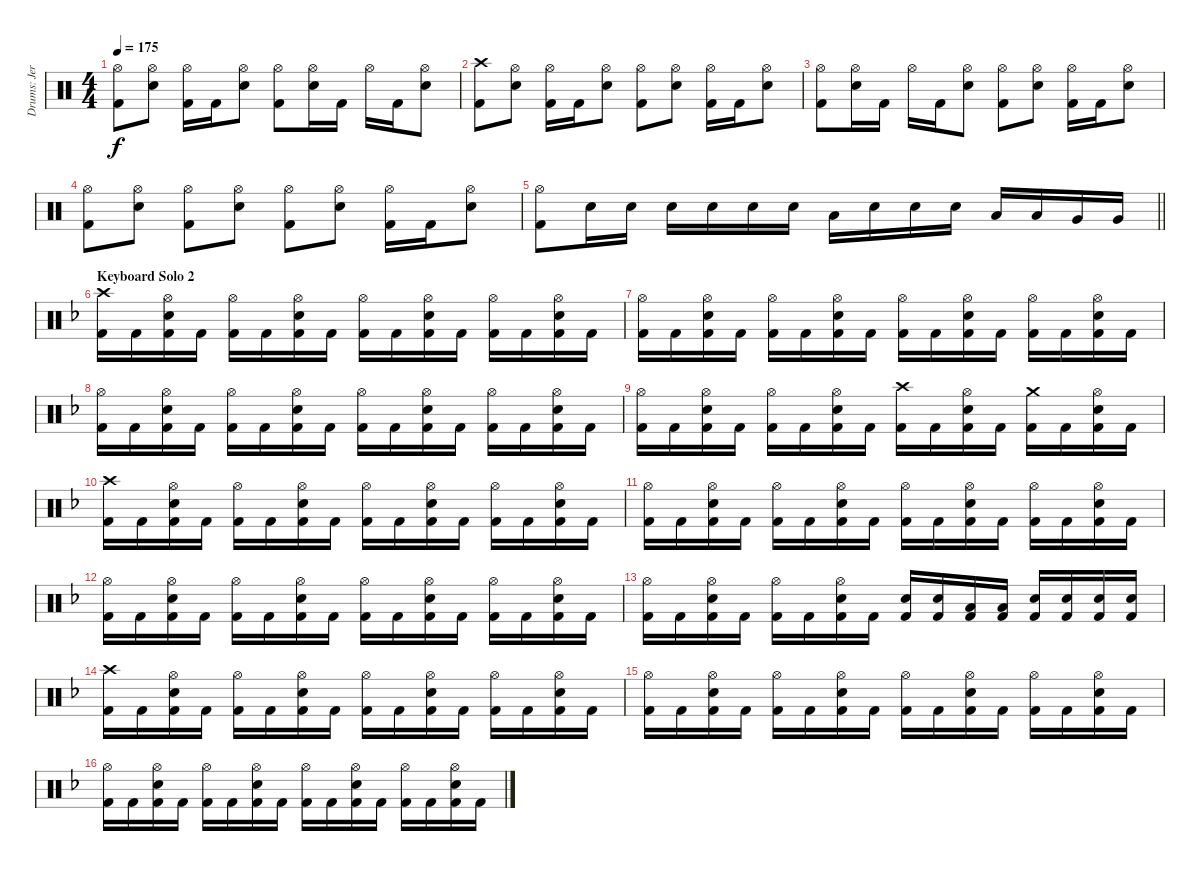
\track ("Drums: Jere Luokkamäki" "Drums: Jer") {instrument percussion}
\staff {score}
\articulation defaults
\ts (4 4)
\tempo 175
\clef neutral
\ks aminor
("Hi-Hat (open)" "Kick (hit) 2").8{dy f} ("Hi-Hat (open)" "Electric Snare (hit)").8 ("Hi-Hat (open)" "Kick (hit) 2").16 "Kick (hit) 2".16 ("Hi-Hat (open)" "Electric Snare (hit)").8 ("Hi-Hat (open)" "Kick (hit) 2").8 ("Hi-Hat (open)" "Electric Snare (hit)").16 "Kick (hit) 2".16 "Hi-Hat (open)".16 "Kick (hit) 2".16 ("Hi-Hat (open)" "Electric Snare (hit)").8 |
("Crash high (hit)" "Kick (hit) 2").8 ("Hi-Hat (open)" "Electric Snare (hit)").8 ("Hi-Hat (open)" "Kick (hit) 2").16 "Kick (hit) 2".16 ("Hi-Hat (open)" "Electric Snare (hit)").8 ("Hi-Hat (open)" "Kick (hit) 2").8 ("Hi-Hat (open)" "Electric Snare (hit)").8 ("Hi-Hat (open)" "Kick (hit) 2").16 "Kick (hit) 2".16 ("Hi-Hat (open)" "Electric Snare (hit)").8 |
("Hi-Hat (open)" "Kick (hit) 2").8 ("Hi-Hat (open)" "Electric Snare (hit)").16 "Kick (hit) 2".16 "Hi-Hat (open)".16 "Kick (hit) 2".16 ("Hi-Hat (open)" "Electric Snare (hit)").8 ("Hi-Hat (open)" "Kick (hit) 2").8 ("Hi-Hat (open)" "Electric Snare (hit)").8 ("Hi-Hat (open)" "Kick (hit) 2").16 "Kick (hit) 2".16 ("Hi-Hat (open)" "Electric Snare (hit)").8 |
("Hi-Hat (open)" "Kick (hit) 2").8 ("Hi-Hat (open)" "Electric Snare (hit)").8 ("Hi-Hat (open)" "Kick (hit) 2").8 ("Hi-Hat (open)" "Electric Snare (hit)").8 ("Hi-Hat (open)" "Kick (hit) 2").8 ("Hi-Hat (open)" "Electric Snare (hit)").8 ("Hi-Hat (open)" "Kick (hit) 2").16 "Kick (hit) 2".16 ("Hi-Hat (open)" "Electric Snare (hit)").8 |
\barLineRight lightlight
("Hi-Hat (open)" "Kick (hit) 2").8 "Electric Snare (hit)".16 "Electric Snare (hit)".16 "Electric Snare (hit)".16 "Electric Snare (hit)".16 "Electric Snare (hit)".16 "Electric Snare (hit)".16 "Low Tom (hit)".16 "Electric Snare (hit)".16 "Electric Snare (hit)".16 "Electric Snare (hit)".16 "Low Tom (hit)".16 "Low Tom (hit)".16 "Very Low Tom (hit)".16 "Very Low Tom (hit)".16 |
\section ("" "Keyboard Solo 2")
\ks dminor
("Crash high (hit)" "Kick (hit) 2").16 "Kick (hit) 2".16 ("Hi-Hat (open)" "Electric Snare (hit)" "Kick (hit) 2").16 "Kick (hit) 2".16 ("Hi-Hat (open)" "Kick (hit) 2").16 "Kick (hit) 2".16 ("Hi-Hat (open)" "Electric Snare (hit)" "Kick (hit) 2").16 "Kick (hit) 2".16 ("Hi-Hat (open)" "Kick (hit) 2").16 "Kick (hit) 2".16 ("Hi-Hat (open)" "Electric Snare (hit)" "Kick (hit) 2").16 "Kick (hit) 2".16 ("Hi-Hat (open)" "Kick (hit) 2").16 "Kick (hit) 2".16 ("Hi-Hat (open)" "Electric Snare (hit)" "Kick (hit) 2").16 "Kick (hit) 2".16 |
("Hi-Hat (open)" "Kick (hit) 2").16 "Kick (hit) 2".16 ("Hi-Hat (open)" "Electric Snare (hit)" "Kick (hit) 2").16 "Kick (hit) 2".16 ("Hi-Hat (open)" "Kick (hit) 2").16 "Kick (hit) 2".16 ("Hi-Hat (open)" "Electric Snare (hit)" "Kick (hit) 2").16 "Kick (hit) 2".16 ("Hi-Hat (open)" "Kick (hit) 2").16 "Kick (hit) 2".16 ("Hi-Hat (open)" "Electric Snare (hit)" "Kick (hit) 2").16 "Kick (hit) 2".16 ("Hi-Hat (open)" "Kick (hit) 2").16 "Kick (hit) 2".16 ("Hi-Hat (open)" "Electric Snare (hit)" "Kick (hit) 2").16 "Kick (hit) 2".16 |
("Hi-Hat (open)" "Kick (hit) 2").16 "Kick (hit) 2".16 ("Hi-Hat (open)" "Electric Snare (hit)" "Kick (hit) 2").16 "Kick (hit) 2".16 ("Hi-Hat (open)" "Kick (hit) 2").16 "Kick (hit) 2".16 ("Hi-Hat (open)" "Electric Snare (hit)" "Kick (hit) 2").16 "Kick (hit) 2".16 ("Hi-Hat (open)" "Kick (hit) 2").16 "Kick (hit) 2".16 ("Hi-Hat (open)" "Electric Snare (hit)" "Kick (hit) 2").16 "Kick (hit) 2".16 ("Hi-Hat (open)" "Kick (hit) 2").16 "Kick (hit) 2".16 ("Hi-Hat (open)" "Electric Snare (hit)" "Kick (hit) 2").16 "Kick (hit) 2".16 |
("Hi-Hat (open)" "Kick (hit) 2").16 "Kick (hit) 2".16 ("Hi-Hat (open)" "Electric Snare (hit)" "Kick (hit) 2").16 "Kick (hit) 2".16 ("Hi-Hat (open)" "Kick (hit) 2").16 "Kick (hit) 2".16 ("Hi-Hat (open)" "Electric Snare (hit)" "Kick (hit) 2").16 "Kick (hit) 2".16 ("Crash high (hit)" "Kick (hit) 2").16 "Kick (hit) 2".16 ("Hi-Hat (open)" "Electric Snare (hit)" "Kick (hit) 2").16 "Kick (hit) 2".16 ("Crash medium (hit)" "Kick (hit) 2").16 "Kick (hit) 2".16 ("Hi-Hat (open)" "Electric Snare (hit)" "Kick (hit) 2").16 "Kick (hit) 2".16 |
("Crash high (hit)" "Kick (hit) 2").16 "Kick (hit) 2".16 ("Hi-Hat (open)" "Electric Snare (hit)" "Kick (hit) 2").16 "Kick (hit) 2".16 ("Hi-Hat (open)" "Kick (hit) 2").16 "Kick (hit) 2".16 ("Hi-Hat (open)" "Electric Snare (hit)" "Kick (hit) 2").16 "Kick (hit) 2".16 ("Hi-Hat (open)" "Kick (hit) 2").16 "Kick (hit) 2".16 ("Hi-Hat (open)" "Electric Snare (hit)" "Kick (hit) 2").16 "Kick (hit) 2".16 ("Hi-Hat (open)" "Kick (hit) 2").16 "Kick (hit) 2".16 ("Hi-Hat (open)" "Electric Snare (hit)" "Kick (hit) 2").16 "Kick (hit) 2".16 |
("Hi-Hat (open)" "Kick (hit) 2").16 "Kick (hit) 2".16 ("Hi-Hat (open)" "Electric Snare (hit)" "Kick (hit) 2").16 "Kick (hit) 2".16 ("Hi-Hat (open)" "Kick (hit) 2").16 "Kick (hit) 2".16 ("Hi-Hat (open)" "Electric Snare (hit)" "Kick (hit) 2").16 "Kick (hit) 2".16 ("Hi-Hat (open)" "Kick (hit) 2").16 "Kick (hit) 2".16 ("Hi-Hat (open)" "Electric Snare (hit)" "Kick (hit) 2").16 "Kick (hit) 2".16 ("Hi-Hat (open)" "Kick (hit) 2").16 "Kick (hit) 2".16 ("Hi-Hat (open)" "Electric Snare (hit)" "Kick (hit) 2").16 "Kick (hit) 2".16 |
("Hi-Hat (open)" "Kick (hit) 2").16 "Kick (hit) 2".16 ("Hi-Hat (open)" "Electric Snare (hit)" "Kick (hit) 2").16 "Kick (hit) 2".16 ("Hi-Hat (open)" "Kick (hit) 2").16 "Kick (hit) 2".16 ("Hi-Hat (open)" "Electric Snare (hit)" "Kick (hit) 2").16 "Kick (hit) 2".16 ("Hi-Hat (open)" "Kick (hit) 2").16 "Kick (hit) 2".16 ("Hi-Hat (open)" "Electric Snare (hit)" "Kick (hit) 2").16 "Kick (hit) 2".16 ("Hi-Hat (open)" "Kick (hit) 2").16 "Kick (hit) 2".16 ("Hi-Hat (open)" "Electric Snare (hit)" "Kick (hit) 2").16 "Kick (hit) 2".16 |
("Hi-Hat (open)" "Kick (hit) 2").16 "Kick (hit) 2".16 ("Hi-Hat (open)" "Electric Snare (hit)" "Kick (hit) 2").16 "Kick (hit) 2".16 ("Hi-Hat (open)" "Kick (hit) 2").16 "Kick (hit) 2".16 ("Hi-Hat (open)" "Electric Snare (hit)" "Kick (hit) 2").16 "Kick (hit) 2".16 ("Electric Snare (hit)" "Kick (hit) 2").16 ("Electric Snare (hit)" "Kick (hit) 2").16 ("Low Tom (hit)" "Kick (hit) 2").16 ("Low Tom (hit)" "Kick (hit) 2").16 ("Electric Snare (hit)" "Kick (hit) 2").16 ("Electric Snare (hit)" "Kick (hit) 2").16 ("Electric Snare (hit)" "Kick (hit) 2").16 ("Electric Snare (hit)" "Kick (hit) 2").16 |
("Crash high (hit)" "Kick (hit) 2").16 "Kick (hit) 2".16 ("Hi-Hat (open)" "Electric Snare (hit)" "Kick (hit) 2").16 "Kick (hit) 2".16 ("Hi-Hat (open)" "Kick (hit) 2").16 "Kick (hit) 2".16 ("Hi-Hat (open)" "Electric Snare (hit)" "Kick (hit) 2").16 "Kick (hit) 2".16 ("Hi-Hat (open)" "Kick (hit) 2").16 "Kick (hit) 2".16 ("Hi-Hat (open)" "Electric Snare (hit)" "Kick (hit) 2").16 "Kick (hit) 2".16 ("Hi-Hat (open)" "Kick (hit) 2").16 "Kick (hit) 2".16 ("Hi-Hat (open)" "Electric Snare (hit)" "Kick (hit) 2").16 "Kick (hit) 2".16 |
("Hi-Hat (open)" "Kick (hit) 2").16 "Kick (hit) 2".16 ("Hi-Hat (open)" "Electric Snare (hit)" "Kick (hit) 2").16 "Kick (hit) 2".16 ("Hi-Hat (open)" "Kick (hit) 2").16 "Kick (hit) 2".16 ("Hi-Hat (open)" "Electric Snare (hit)" "Kick (hit) 2").16 "Kick (hit) 2".16 ("Hi-Hat (open)" "Kick (hit) 2").16 "Kick (hit) 2".16 ("Hi-Hat (open)" "Electric Snare (hit)" "Kick (hit) 2").16 "Kick (hit) 2".16 ("Hi-Hat (open)" "Kick (hit) 2").16 "Kick (hit) 2".16 ("Hi-Hat (open)" "Electric Snare (hit)" "Kick (hit) 2").16 "Kick (hit) 2".16 |
("Hi-Hat (open)" "Kick (hit) 2").16 "Kick (hit) 2".16 ("Hi-Hat (open)" "Electric Snare (hit)" "Kick (hit) 2").16 "Kick (hit) 2".16 ("Hi-Hat (open)" "Kick (hit) 2").16 "Kick (hit) 2".16 ("Hi-Hat (open)" "Electric Snare (hit)" "Kick (hit) 2").16 "Kick (hit) 2".16 ("Hi-Hat (open)" "Kick (hit) 2").16 "Kick (hit) 2".16 ("Hi-Hat (open)" "Electric Snare (hit)" "Kick (hit) 2").16 "Kick (hit) 2".16 ("Hi-Hat (open)" "Kick (hit) 2").16 "Kick (hit) 2".16 ("Hi-Hat (open)" "Electric Snare (hit)" "Kick (hit) 2").16 "Kick (hit) 2".16
